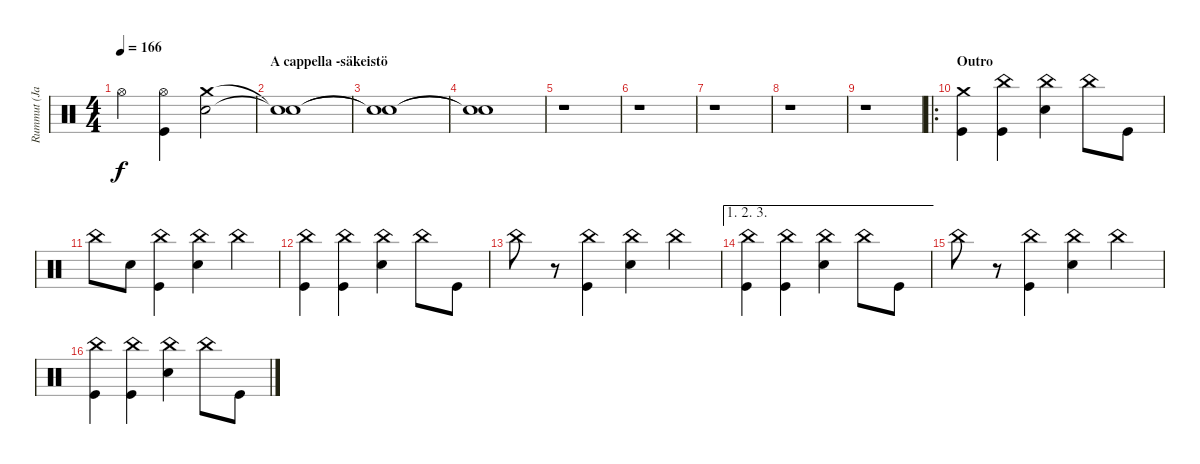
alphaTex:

\track ("Rummut (Janne)" "Rummut (Ja") {instrument percussion}
\staff {score}
\articulation defaults
\ts (4 4)
\tempo 166
\clef neutral
\ks c "Hi-Hat (open)".4{dy f}
("Hi-Hat (open)" "Kick (hit)").4 ("Crash medium (hit)" "Snare (hit) 2").2 |
\section ("" "A cappella -säkeistö")
("Snare (hit)"{t} "Snare (hit)"{t}).1 |
("Snare (hit)"{t} "Snare (hit)"{t}).1 |
("Snare (hit)"{t} "Snare (hit)"{t}).1 |
r.1 |
r.1 |
r.1 |
r.1 |
r.1 |
\ro
\section ("" "Outro")
("Crash medium (hit)" "Kick (hit)").4 ("China (hit)" "Kick (hit)").4 ("China (hit)" "Snare (hit) 2").4 "China (hit)".8 "Kick (hit)".8 |
"China (hit)".8 "Snare (hit) 2".8 ("China (hit)" "Kick (hit)").4 ("China (hit)" "Snare (hit) 2").4 "China (hit)".4 |
("China (hit)" "Kick (hit)").4 ("China (hit)" "Kick (hit)").4 ("China (hit)" "Snare (hit) 2").4 "China (hit)".8 "Kick (hit)".8 |
"China (hit)".8 r.8 ("China (hit)" "Kick (hit)").4 ("China (hit)" "Snare (hit) 2").4 "China (hit)".4 |
\ae (1 2 3)
("China (hit)" "Kick (hit)").4 ("China (hit)" "Kick (hit)").4 ("China (hit)" "Snare (hit) 2").4 "China (hit)".8 "Kick (hit)".8 |
"China (hit)".8 r.8 ("China (hit)" "Kick (hit)").4 ("China (hit)" "Snare (hit) 2").4 "China (hit)".4 |
("China (hit)" "Kick (hit)").4 ("China (hit)" "Kick (hit)").4 ("China (hit)" "Snare (hit) 2").4 "China (hit)".8 "Kick (hit)".8
